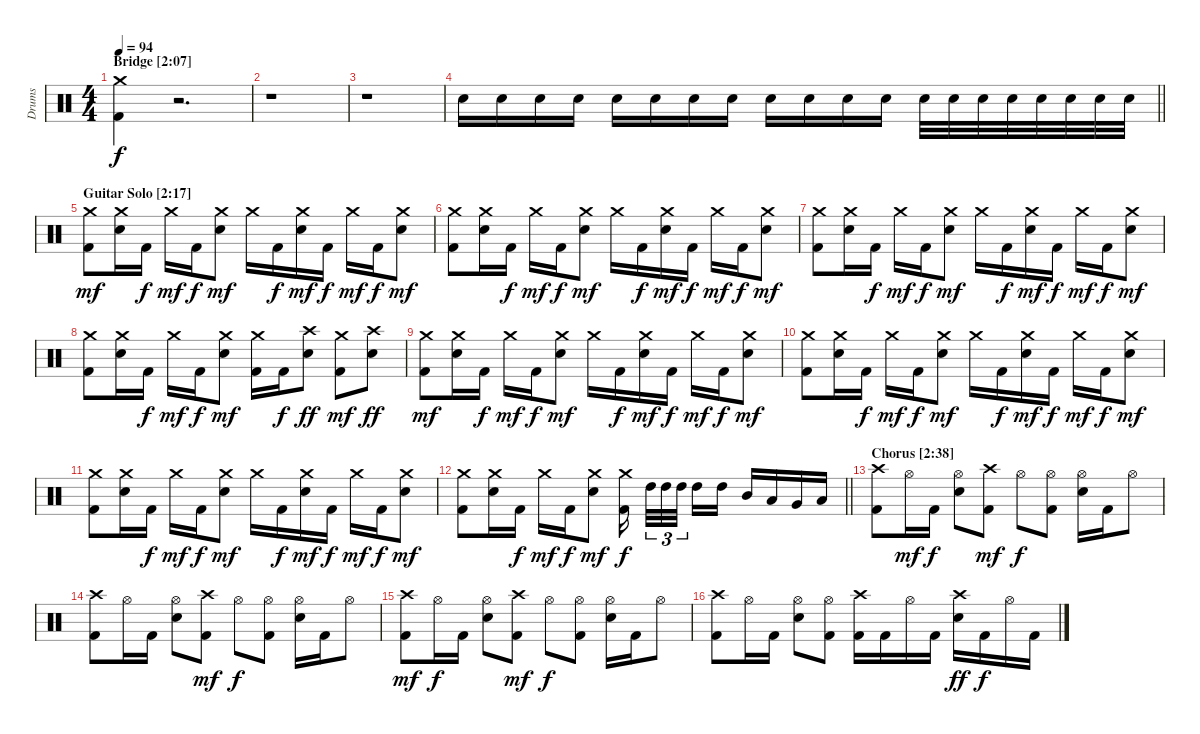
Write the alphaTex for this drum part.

\track ("Drums" "Drums") {instrument percussion}
\staff {score}
\articulation defaults
\ts (4 4)
\section ("" "Bridge [2:07]")
\tempo 94
\clef neutral
\ks c
("Crash medium (hit)" "Kick (hit) 2").4{dy f} r.2{d} |
r.1 |
r.1 |
\barLineRight lightlight "Electric Snare (hit)".16 "Electric Snare (hit)".16 "Electric Snare (hit)".16 "Electric Snare (hit)".16 "Electric Snare (hit)".16 "Electric Snare (hit)".16 "Electric Snare (hit)".16 "Electric Snare (hit)".16 "Electric Snare (hit)".16 "Electric Snare (hit)".16 "Electric Snare (hit)".16 "Electric Snare (hit)".16 "Electric Snare (hit)".32 "Electric Snare (hit)".32 "Electric Snare (hit)".32 "Electric Snare (hit)".32 "Electric Snare (hit)".32 "Electric Snare (hit)".32 "Electric Snare (hit)".32 "Electric Snare (hit)".32
|
\section ("" "Guitar Solo [2:17]")
("Crash medium (hit)" "Kick (hit) 2").8{dy mf} ("Crash medium (hit)" "Electric Snare (hit)").16 "Kick (hit) 2".16{dy f} "Crash medium (hit)".16{dy mf} "Kick (hit) 2".16{dy f} ("Crash medium (hit)" "Electric Snare (hit)").8{dy mf} "Crash medium (hit)".16 "Kick (hit) 2".16{dy f} ("Crash medium (hit)" "Electric Snare (hit)").16{dy mf} "Kick (hit) 2".16{dy f} "Crash medium (hit)".16{dy mf} "Kick (hit) 2".16{dy f} ("Crash medium (hit)" "Electric Snare (hit)").8{dy mf} |
("Crash medium (hit)" "Kick (hit) 2").8 ("Crash medium (hit)" "Electric Snare (hit)").16 "Kick (hit) 2".16{dy f} "Crash medium (hit)".16{dy mf} "Kick (hit) 2".16{dy f} ("Crash medium (hit)" "Electric Snare (hit)").8{dy mf} "Crash medium (hit)".16 "Kick (hit) 2".16{dy f} ("Crash medium (hit)" "Electric Snare (hit)").16{dy mf} "Kick (hit) 2".16{dy f} "Crash medium (hit)".16{dy mf} "Kick (hit) 2".16{dy f} ("Crash medium (hit)" "Electric Snare (hit)").8{dy mf} |
("Crash medium (hit)" "Kick (hit) 2").8 ("Crash medium (hit)" "Electric Snare (hit)").16 "Kick (hit) 2".16{dy f} "Crash medium (hit)".16{dy mf} "Kick (hit) 2".16{dy f} ("Crash medium (hit)" "Electric Snare (hit)").8{dy mf} "Crash medium (hit)".16 "Kick (hit) 2".16{dy f} ("Crash medium (hit)" "Electric Snare (hit)").16{dy mf} "Kick (hit) 2".16{dy f} "Crash medium (hit)".16{dy mf} "Kick (hit) 2".16{dy f} ("Crash medium (hit)" "Electric Snare (hit)").8{dy mf} |
("Crash medium (hit)" "Kick (hit) 2").8 ("Crash medium (hit)" "Electric Snare (hit)").16 "Kick (hit) 2".16{dy f} "Crash medium (hit)".16{dy mf} "Kick (hit) 2".16{dy f} ("Crash medium (hit)" "Electric Snare (hit)").8{dy mf} ("Crash medium (hit)" "Kick (hit) 2").16 "Kick (hit) 2".16{dy f} ("Crash high (hit)" "Electric Snare (hit)").8{dy ff} ("Crash medium (hit)" "Kick (hit) 2").8{dy mf} ("Crash high (hit)" "Electric Snare (hit)").8{dy ff} |
("Crash medium (hit)" "Kick (hit) 2").8{dy mf} ("Crash medium (hit)" "Electric Snare (hit)").16 "Kick (hit) 2".16{dy f} "Crash medium (hit)".16{dy mf} "Kick (hit) 2".16{dy f} ("Crash medium (hit)" "Electric Snare (hit)").8{dy mf} "Crash medium (hit)".16 "Kick (hit) 2".16{dy f} ("Crash medium (hit)" "Electric Snare (hit)").16{dy mf} "Kick (hit) 2".16{dy f} "Crash medium (hit)".16{dy mf} "Kick (hit) 2".16{dy f} ("Crash medium (hit)" "Electric Snare (hit)").8{dy mf} |
("Crash medium (hit)" "Kick (hit) 2").8 ("Crash medium (hit)" "Electric Snare (hit)").16 "Kick (hit) 2".16{dy f} "Crash medium (hit)".16{dy mf} "Kick (hit) 2".16{dy f} ("Crash medium (hit)" "Electric Snare (hit)").8{dy mf} "Crash medium (hit)".16 "Kick (hit) 2".16{dy f} ("Crash medium (hit)" "Electric Snare (hit)").16{dy mf} "Kick (hit) 2".16{dy f} "Crash medium (hit)".16{dy mf} "Kick (hit) 2".16{dy f} ("Crash medium (hit)" "Electric Snare (hit)").8{dy mf} |
("Crash medium (hit)" "Kick (hit) 2").8 ("Crash medium (hit)" "Electric Snare (hit)").16 "Kick (hit) 2".16{dy f} "Crash medium (hit)".16{dy mf} "Kick (hit) 2".16{dy f} ("Crash medium (hit)" "Electric Snare (hit)").8{dy mf} "Crash medium (hit)".16 "Kick (hit) 2".16{dy f} ("Crash medium (hit)" "Electric Snare (hit)").16{dy mf} "Kick (hit) 2".16{dy f} "Crash medium (hit)".16{dy mf} "Kick (hit) 2".16{dy f} ("Crash medium (hit)" "Electric Snare (hit)").8{dy mf} |
\barLineRight lightlight
("Crash medium (hit)" "Kick (hit) 2").8 ("Crash medium (hit)" "Electric Snare (hit)").16 "Kick (hit) 2".16{dy f} "Crash medium (hit)".16{dy mf} "Kick (hit) 2".16{dy f} ("Crash medium (hit)" "Electric Snare (hit)").8{dy mf} ("Crash medium (hit)" "Kick (hit) 2").16{dy f beam splitsecondary} "High Tom (hit)".32{tu (3 2)} "High Tom (hit)".32{tu (3 2)} "High Tom (hit)".32{tu (3 2) beam splitsecondary} "High Tom (hit)".16 "High Tom (hit)".16 "Mid Tom (hit)".16 "Low Tom (hit)".16 "Very Low Tom (hit)".16 "Low Floor Tom (hit)".16 |
\section ("" "Chorus [2:38]")
("Crash high (hit)" "Kick (hit) 2").8 "Hi-Hat (open)".16{dy mf} "Kick (hit) 2".16{dy f} ("Hi-Hat (open)" "Electric Snare (hit)").8 ("Crash high (hit)" "Kick (hit) 2").8{dy mf} "Hi-Hat (open)".8{dy f} ("Hi-Hat (open)" "Kick (hit) 2").8 ("Hi-Hat (open)" "Electric Snare (hit)").16 "Kick (hit) 2".16 "Hi-Hat (open)".8 |
("Crash high (hit)" "Kick (hit) 2").8 "Hi-Hat (open)".16 "Kick (hit) 2".16 ("Hi-Hat (open)" "Electric Snare (hit)").8 ("Crash high (hit)" "Kick (hit) 2").8{dy mf} "Hi-Hat (open)".8{dy f} ("Hi-Hat (open)" "Kick (hit) 2").8 ("Hi-Hat (open)" "Electric Snare (hit)").16 "Kick (hit) 2".16 "Hi-Hat (open)".8 |
("Crash high (hit)" "Kick (hit) 2").8{dy mf} "Hi-Hat (open)".16{dy f} "Kick (hit) 2".16 ("Hi-Hat (open)" "Electric Snare (hit)").8 ("Crash high (hit)" "Kick (hit) 2").8{dy mf} "Hi-Hat (open)".8{dy f} ("Hi-Hat (open)" "Kick (hit) 2").8 ("Hi-Hat (open)" "Electric Snare (hit)").16 "Kick (hit) 2".16 "Hi-Hat (open)".8 |
("Crash high (hit)" "Kick (hit) 2").8 "Hi-Hat (open)".16 "Kick (hit) 2".16 ("Hi-Hat (open)" "Electric Snare (hit)").8 ("Hi-Hat (open)" "Kick (hit) 2").8 ("Crash high (hit)" "Kick (hit) 2").16 "Kick (hit) 2".16 "Hi-Hat (open)".16 "Kick (hit) 2".16 ("Crash high (hit)" "Electric Snare (hit)").16{dy ff} "Kick (hit) 2".16{dy f} "Hi-Hat (open)".16 "Kick (hit) 2".16
